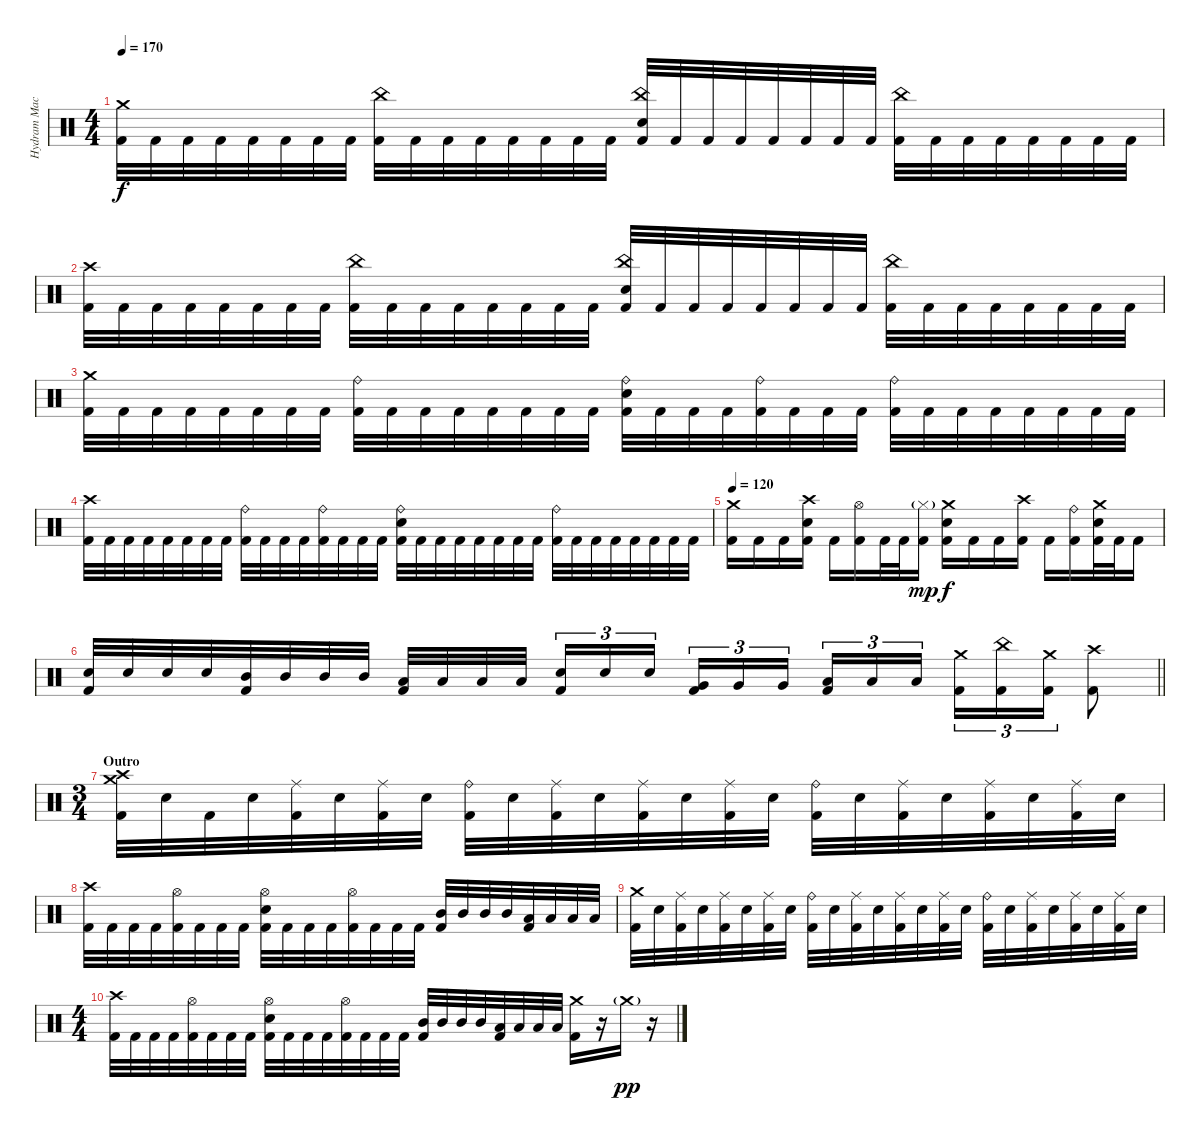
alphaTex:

\track ("Hydram Machine" "Hydram Mac") {instrument percussion}
\staff {score}
\articulation defaults
\ts (4 4)
\tempo 170
\clef neutral
\ks c
("Crash medium (hit)" "Kick (hit) 2").32{dy f} "Kick (hit) 2".32 "Kick (hit) 2".32 "Kick (hit) 2".32 "Kick (hit) 2".32 "Kick (hit) 2".32 "Kick (hit) 2".32 "Kick (hit) 2".32 ("China (hit)" "Kick (hit) 2").32 "Kick (hit) 2".32 "Kick (hit) 2".32 "Kick (hit) 2".32 "Kick (hit) 2".32 "Kick (hit) 2".32 "Kick (hit) 2".32 "Kick (hit) 2".32 ("China (hit)" "Electric Snare (hit)" "Kick (hit) 2").32 "Kick (hit) 2".32 "Kick (hit) 2".32 "Kick (hit) 2".32 "Kick (hit) 2".32 "Kick (hit) 2".32 "Kick (hit) 2".32 "Kick (hit) 2".32 ("China (hit)" "Kick (hit) 2").32 "Kick (hit) 2".32 "Kick (hit) 2".32 "Kick (hit) 2".32 "Kick (hit) 2".32 "Kick (hit) 2".32 "Kick (hit) 2".32 "Kick (hit) 2".32 |
("Crash high (hit)" "Kick (hit) 2").32 "Kick (hit) 2".32 "Kick (hit) 2".32 "Kick (hit) 2".32 "Kick (hit) 2".32 "Kick (hit) 2".32 "Kick (hit) 2".32 "Kick (hit) 2".32 ("China (hit)" "Kick (hit) 2").32 "Kick (hit) 2".32 "Kick (hit) 2".32 "Kick (hit) 2".32 "Kick (hit) 2".32 "Kick (hit) 2".32 "Kick (hit) 2".32 "Kick (hit) 2".32 ("China (hit)" "Electric Snare (hit)" "Kick (hit) 2").32 "Kick (hit) 2".32 "Kick (hit) 2".32 "Kick (hit) 2".32 "Kick (hit) 2".32 "Kick (hit) 2".32 "Kick (hit) 2".32 "Kick (hit) 2".32 ("China (hit)" "Kick (hit) 2").32 "Kick (hit) 2".32 "Kick (hit) 2".32 "Kick (hit) 2".32 "Kick (hit) 2".32 "Kick (hit) 2".32 "Kick (hit) 2".32 "Kick (hit) 2".32 |
("Crash medium (hit)" "Kick (hit) 2").32 "Kick (hit) 2".32 "Kick (hit) 2".32 "Kick (hit) 2".32 "Kick (hit) 2".32 "Kick (hit) 2".32 "Kick (hit) 2".32 "Kick (hit) 2".32 ("Ride (bell)" "Kick (hit) 2").32 "Kick (hit) 2".32 "Kick (hit) 2".32 "Kick (hit) 2".32 "Kick (hit) 2".32 "Kick (hit) 2".32 "Kick (hit) 2".32 "Kick (hit) 2".32 ("Ride (bell)" "Electric Snare (hit)" "Kick (hit) 2").32 "Kick (hit) 2".32 "Kick (hit) 2".32 "Kick (hit) 2".32 ("Ride (bell)" "Kick (hit) 2").32 "Kick (hit) 2".32 "Kick (hit) 2".32 "Kick (hit) 2".32 ("Ride (bell)" "Kick (hit) 2").32 "Kick (hit) 2".32 "Kick (hit) 2".32 "Kick (hit) 2".32 "Kick (hit) 2".32 "Kick (hit) 2".32 "Kick (hit) 2".32 "Kick (hit) 2".32 |
("Crash high (hit)" "Kick (hit) 2").32 "Kick (hit) 2".32 "Kick (hit) 2".32 "Kick (hit) 2".32 "Kick (hit) 2".32 "Kick (hit) 2".32 "Kick (hit) 2".32 "Kick (hit) 2".32 ("Ride (bell)" "Kick (hit) 2").32 "Kick (hit) 2".32 "Kick (hit) 2".32 "Kick (hit) 2".32 ("Ride (bell)" "Kick (hit) 2").32 "Kick (hit) 2".32 "Kick (hit) 2".32 "Kick (hit) 2".32 ("Ride (bell)" "Electric Snare (hit)" "Kick (hit) 2").32 "Kick (hit) 2".32 "Kick (hit) 2".32 "Kick (hit) 2".32 "Kick (hit) 2".32 "Kick (hit) 2".32 "Kick (hit) 2".32 "Kick (hit) 2".32 ("Ride (bell)" "Kick (hit) 2").32 "Kick (hit) 2".32 "Kick (hit) 2".32 "Kick (hit) 2".32 "Kick (hit) 2".32 "Kick (hit) 2".32 "Kick (hit) 2".32 "Kick (hit) 2".32 |
\tempo 120
("Crash medium (hit)" "Kick (hit) 2").16 "Kick (hit) 2".16 "Kick (hit) 2".16 ("Crash high (hit)" "Electric Snare (hit)" "Kick (hit) 2").16 "Kick (hit) 2".16 ("Hi-Hat (open)" "Kick (hit) 2").16 "Kick (hit) 2".32 "Kick (hit) 2".32 ("Hi-Hat (closed)"{g} "Kick (hit) 2").16{dy mp} ("Crash medium (hit)" "Electric Snare (hit)" "Kick (hit) 2").16{dy f} "Kick (hit) 2".16 "Kick (hit) 2".16 ("Crash high (hit)" "Kick (hit) 2").16 "Kick (hit) 2".16 ("Ride (bell)" "Kick (hit) 2").16 ("Crash medium (hit)" "Electric Snare (hit)" "Kick (hit) 2").32 "Kick (hit) 2".32 "Kick (hit) 2".16 |
\barLineRight lightlight
("Electric Snare (hit)" "Kick (hit) 2").32 "Electric Snare (hit)".32 "Electric Snare (hit)".32 "Electric Snare (hit)".32 ("Mid Tom (hit)" "Kick (hit) 2").32 "Mid Tom (hit)".32 "Mid Tom (hit)".32 "Mid Tom (hit)".32 ("Low Tom (hit)" "Kick (hit) 2").32 "Low Tom (hit)".32 "Low Tom (hit)".32 "Low Tom (hit)".32{beam splitsecondary} ("Electric Snare (hit)" "Kick (hit) 2").16{tu (3 2)} "Electric Snare (hit)".16{tu (3 2)} "Electric Snare (hit)".16{tu (3 2)} ("Very Low Tom (hit)" "Kick (hit) 2").16{tu (3 2)} "Very Low Tom (hit)".16{tu (3 2)} "Very Low Tom (hit)".16{tu (3 2) beam splitsecondary} ("Low Floor Tom (hit)" "Kick (hit) 2").16{tu (3 2)} "Low Floor Tom (hit)".16{tu (3 2)} "Low Floor Tom (hit)".16{tu (3 2)} ("Crash medium (hit)" "Kick (hit) 2").16{tu (3 2)} ("China (hit)" "Kick (hit) 2").16{tu (3 2)} ("Crash medium (hit)" "Kick (hit) 2").16{tu (3 2)} ("Crash high (hit)" "Kick (hit) 2").8 |
\ts (3 4)
\section ("" "Outro")
("Crash high (hit)" "Crash medium (hit)" "Kick (hit) 2").32 "Electric Snare (hit)".32 "Kick (hit) 2".32 "Electric Snare (hit)".32 ("Ride (middle)" "Kick (hit) 2").32 "Electric Snare (hit)".32 ("Ride (middle)" "Kick (hit) 2").32 "Electric Snare (hit)".32 ("Ride (bell)" "Kick (hit) 2").32 "Electric Snare (hit)".32 ("Ride (middle)" "Kick (hit) 2").32 "Electric Snare (hit)".32 ("Ride (middle)" "Kick (hit) 2").32 "Electric Snare (hit)".32 ("Ride (middle)" "Kick (hit) 2").32 "Electric Snare (hit)".32 ("Ride (bell)" "Kick (hit) 2").32 "Electric Snare (hit)".32 ("Ride (middle)" "Kick (hit) 2").32 "Electric Snare (hit)".32 ("Ride (middle)" "Kick (hit) 2").32 "Electric Snare (hit)".32 ("Ride (middle)" "Kick (hit) 2").32 "Electric Snare (hit)".32 |
("Crash high (hit)" "Kick (hit) 2").32 "Kick (hit) 2".32 "Kick (hit) 2".32 "Kick (hit) 2".32 ("Hi-Hat (open)" "Kick (hit) 2").32 "Kick (hit) 2".32 "Kick (hit) 2".32 "Kick (hit) 2".32 ("Hi-Hat (open)" "Electric Snare (hit)" "Kick (hit) 2").32 "Kick (hit) 2".32 "Kick (hit) 2".32 "Kick (hit) 2".32 ("Hi-Hat (open)" "Kick (hit) 2").32 "Kick (hit) 2".32 "Kick (hit) 2".32 "Kick (hit) 2".32 ("Mid Tom (hit)" "Kick (hit) 2").32 "Mid Tom (hit)".32 "Mid Tom (hit)".32 "Mid Tom (hit)".32 ("Low Tom (hit)" "Kick (hit) 2").32 "Low Tom (hit)".32 "Low Tom (hit)".32 "Low Tom (hit)".32 |
("Crash medium (hit)" "Kick (hit) 2").32 "Electric Snare (hit)".32 ("Ride (middle)" "Kick (hit) 2").32 "Electric Snare (hit)".32 ("Ride (middle)" "Kick (hit) 2").32 "Electric Snare (hit)".32 ("Ride (middle)" "Kick (hit) 2").32 "Electric Snare (hit)".32 ("Ride (bell)" "Kick (hit) 2").32 "Electric Snare (hit)".32 ("Ride (middle)" "Kick (hit) 2").32 "Electric Snare (hit)".32 ("Ride (middle)" "Kick (hit) 2").32 "Electric Snare (hit)".32 ("Ride (middle)" "Kick (hit) 2").32 "Electric Snare (hit)".32 ("Ride (bell)" "Kick (hit) 2").32 "Electric Snare (hit)".32 ("Ride (middle)" "Kick (hit) 2").32 "Electric Snare (hit)".32 ("Ride (middle)" "Kick (hit) 2").32 "Electric Snare (hit)".32 ("Ride (middle)" "Kick (hit) 2").32 "Electric Snare (hit)".32 |
\ts (4 4)
("Crash high (hit)" "Kick (hit) 2").32 "Kick (hit) 2".32 "Kick (hit) 2".32 "Kick (hit) 2".32 ("Hi-Hat (open)" "Kick (hit) 2").32 "Kick (hit) 2".32 "Kick (hit) 2".32 "Kick (hit) 2".32 ("Hi-Hat (open)" "Electric Snare (hit)" "Kick (hit) 2").32 "Kick (hit) 2".32 "Kick (hit) 2".32 "Kick (hit) 2".32 ("Hi-Hat (open)" "Kick (hit) 2").32 "Kick (hit) 2".32 "Kick (hit) 2".32 "Kick (hit) 2".32 ("Mid Tom (hit)" "Kick (hit) 2").32 "Mid Tom (hit)".32 "Mid Tom (hit)".32 "Mid Tom (hit)".32 ("Low Tom (hit)" "Kick (hit) 2").32 "Low Tom (hit)".32 "Low Tom (hit)".32 "Low Tom (hit)".32 ("Crash medium (hit)" "Kick (hit) 2").16 r.16 "Crash medium (hit)"{g}.16{dy pp} r.16
